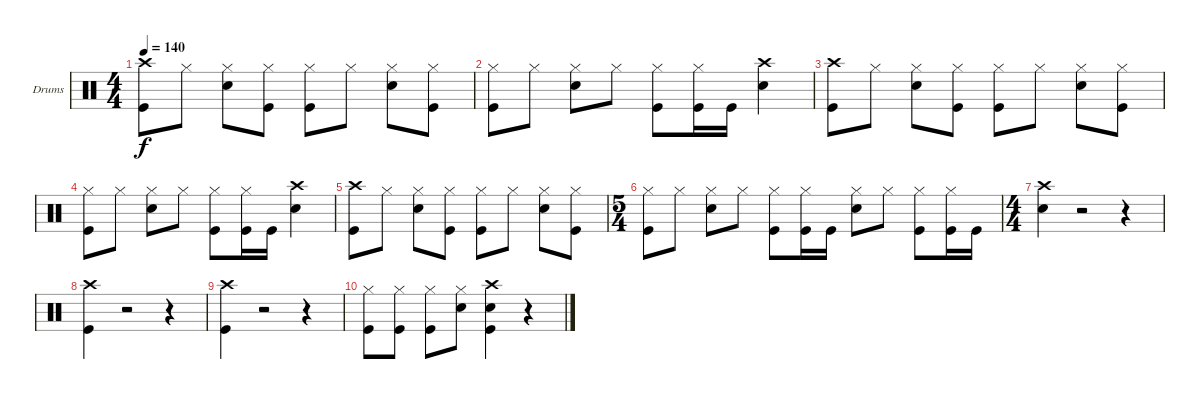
\defaultSystemsLayout 4
\bracketExtendMode groupsimilarinstruments
\firstSystemTrackNameOrientation horizontal
\otherSystemsTrackNameOrientation horizontal
\track ("Drums" "Drums") {instrument percussion}
\staff {score}
\articulation defaults
\ts (4 4)
\tempo 140
\clef neutral
\ks c
("Crash high (hit)" "Kick (hit)").8{dy f} "Hi-Hat (closed)".8 ("Snare (hit) 2" "Hi-Hat (closed)").8 ("Hi-Hat (closed)" "Kick (hit)").8 ("Hi-Hat (closed)" "Kick (hit)").8 "Hi-Hat (closed)".8 ("Snare (hit) 2" "Hi-Hat (closed)").8 ("Hi-Hat (closed)" "Kick (hit)").8 |
("Hi-Hat (closed)" "Kick (hit)").8 "Hi-Hat (closed)".8 ("Snare (hit) 2" "Hi-Hat (closed)").8 "Hi-Hat (closed)".8 ("Hi-Hat (closed)" "Kick (hit)").8 ("Hi-Hat (closed)" "Kick (hit)").16 "Kick (hit)".16 ("Crash high (hit)" "Snare (hit) 2").4 |
("Crash high (hit)" "Kick (hit)").8 "Hi-Hat (closed)".8 ("Snare (hit) 2" "Hi-Hat (closed)").8 ("Hi-Hat (closed)" "Kick (hit)").8 ("Hi-Hat (closed)" "Kick (hit)").8 "Hi-Hat (closed)".8 ("Snare (hit) 2" "Hi-Hat (closed)").8 ("Hi-Hat (closed)" "Kick (hit)").8 |
("Hi-Hat (closed)" "Kick (hit)").8 "Hi-Hat (closed)".8 ("Snare (hit) 2" "Hi-Hat (closed)").8 "Hi-Hat (closed)".8 ("Hi-Hat (closed)" "Kick (hit)").8 ("Hi-Hat (closed)" "Kick (hit)").16 "Kick (hit)".16 ("Crash high (hit)" "Snare (hit) 2").4 |
("Kick (hit)" "Crash high (hit)").8 "Hi-Hat (closed)".8 ("Snare (hit) 2" "Hi-Hat (closed)").8 ("Kick (hit)" "Hi-Hat (closed)").8 ("Kick (hit)" "Hi-Hat (closed)").8 "Hi-Hat (closed)".8 ("Snare (hit) 2" "Hi-Hat (closed)").8 ("Kick (hit)" "Hi-Hat (closed)").8 |
\ts (5 4)
("Hi-Hat (closed)" "Kick (hit)").8 "Hi-Hat (closed)".8 ("Snare (hit) 2" "Hi-Hat (closed)").8 "Hi-Hat (closed)".8 ("Hi-Hat (closed)" "Kick (hit)").8 ("Hi-Hat (closed)" "Kick (hit)").16 "Kick (hit)".16 ("Snare (hit) 2" "Hi-Hat (closed)").8 "Hi-Hat (closed)".8 ("Hi-Hat (closed)" "Kick (hit)").8 ("Hi-Hat (closed)" "Kick (hit)").16 "Kick (hit)".16 |
\ts (4 4)
("Snare (hit) 2" "Crash high (hit)").4 r.2 r.4 |
("Kick (hit)" "Crash high (hit)").4 r.2 r.4 |
("Crash high (hit)" "Kick (hit)").4 r.2 r.4 |
("Hi-Hat (closed)" "Kick (hit)").8 ("Hi-Hat (closed)" "Kick (hit)").8 ("Hi-Hat (closed)" "Kick (hit)").8 ("Snare (hit) 2" "Hi-Hat (closed)").8 ("Kick (hit)" "Snare (hit) 2" "Crash high (hit)").4 r.4
